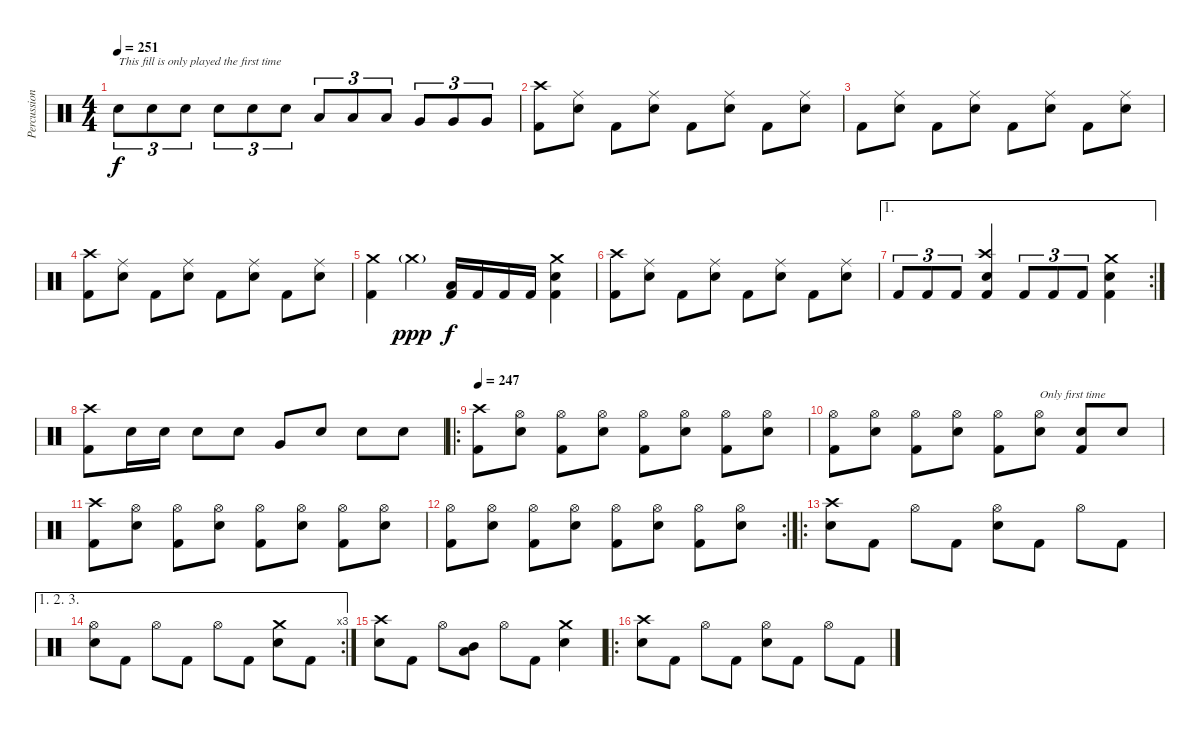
\track ("Percussion" "Percussion") {instrument percussion}
\staff {score}
\articulation defaults
\ts (4 4)
\tempo 251
\clef neutral
\ks c "Snare (hit) 2".8{tu (3 2) txt "This fill is only played the first time" dy f} "Snare (hit) 2".8{tu (3 2)} "Snare (hit) 2".8{tu (3 2)} "Snare (hit) 2".8{tu (3 2)} "Snare (hit) 2".8{tu (3 2)} "Snare (hit) 2".8{tu (3 2)} "Low Tom (hit)".8{tu (3 2)} "Low Tom (hit)".8{tu (3 2)} "Low Tom (hit)".8{tu (3 2)} "Very Low Tom (hit)".8{tu (3 2)} "Very Low Tom (hit)".8{tu (3 2)} "Very Low Tom (hit)".8{tu (3 2)}
|
("Crash high (hit)" "Kick (hit) 2").8 ("Ride (middle)" "Snare (hit) 2").8 "Kick (hit) 2".8 ("Ride (middle)" "Snare (hit) 2").8 "Kick (hit) 2".8 ("Ride (middle)" "Snare (hit) 2").8 "Kick (hit) 2".8 ("Ride (middle)" "Snare (hit) 2").8 |
"Kick (hit) 2".8 ("Ride (middle)" "Snare (hit) 2").8 "Kick (hit) 2".8 ("Ride (middle)" "Snare (hit) 2").8 "Kick (hit) 2".8 ("Ride (middle)" "Snare (hit) 2").8 "Kick (hit) 2".8 ("Ride (middle)" "Snare (hit) 2").8 |
("Crash high (hit)" "Kick (hit) 2").8 ("Ride (middle)" "Snare (hit) 2").8 "Kick (hit) 2".8 ("Ride (middle)" "Snare (hit) 2").8 "Kick (hit) 2".8 ("Ride (middle)" "Snare (hit) 2").8 "Kick (hit) 2".8 ("Ride (middle)" "Snare (hit) 2").8 |
("Crash medium (hit)" "Kick (hit) 2").4 "Crash medium (hit)"{g}.4{dy ppp} ("Low Tom (hit)" "Kick (hit) 2").16{dy f} "Kick (hit) 2".16 "Kick (hit) 2".16 "Kick (hit) 2".16 ("Crash medium (hit)" "Snare (hit) 2" "Kick (hit) 2").4 |
("Crash high (hit)" "Kick (hit) 2").8 ("Ride (middle)" "Snare (hit) 2").8 "Kick (hit) 2".8 ("Ride (middle)" "Snare (hit) 2").8 "Kick (hit) 2".8 ("Ride (middle)" "Snare (hit) 2").8 "Kick (hit) 2".8 ("Ride (middle)" "Snare (hit) 2").8 |
\ae 1
\rc 2 "Kick (hit) 2".8{tu (3 2)} "Kick (hit) 2".8{tu (3 2)} "Kick (hit) 2".8{tu (3 2)}
("Crash high (hit)" "Snare (hit) 2" "Kick (hit) 2").4 "Kick (hit) 2".8{tu (3 2)} "Kick (hit) 2".8{tu (3 2)} "Kick (hit) 2".8{tu (3 2)} ("Crash medium (hit)" "Snare (hit) 2" "Kick (hit) 2").4 |
("Crash high (hit)" "Kick (hit) 2").8 "Snare (hit) 2".16 "Snare (hit) 2".16 "Snare (hit) 2".8 "Snare (hit) 2".8 "Very Low Tom (hit)".8 "Snare (hit) 2".8 "Snare (hit) 2".8 "Snare (hit) 2".8 |
\ro
\tempo 247
("Crash high (hit)" "Kick (hit) 2").8 ("Hi-Hat (open)" "Snare (hit) 2").8 ("Hi-Hat (open)" "Kick (hit) 2").8 ("Hi-Hat (open)" "Snare (hit) 2").8 ("Hi-Hat (open)" "Kick (hit) 2").8 ("Hi-Hat (open)" "Snare (hit) 2").8 ("Hi-Hat (open)" "Kick (hit) 2").8 ("Hi-Hat (open)" "Snare (hit) 2").8 |
("Hi-Hat (open)" "Kick (hit) 2").8 ("Hi-Hat (open)" "Snare (hit) 2").8 ("Hi-Hat (open)" "Kick (hit) 2").8 ("Hi-Hat (open)" "Snare (hit) 2").8 ("Hi-Hat (open)" "Kick (hit) 2").8 ("Hi-Hat (open)" "Snare (hit) 2").8{txt "Only first time"} ("Snare (hit) 2" "Kick (hit) 2").8 "Snare (hit) 2".8 |
("Crash high (hit)" "Kick (hit) 2").8 ("Hi-Hat (open)" "Snare (hit) 2").8 ("Hi-Hat (open)" "Kick (hit) 2").8 ("Hi-Hat (open)" "Snare (hit) 2").8 ("Hi-Hat (open)" "Kick (hit) 2").8 ("Hi-Hat (open)" "Snare (hit) 2").8 ("Hi-Hat (open)" "Kick (hit) 2").8 ("Hi-Hat (open)" "Snare (hit) 2").8 |
\rc 2
("Hi-Hat (open)" "Kick (hit) 2").8 ("Hi-Hat (open)" "Snare (hit) 2").8 ("Hi-Hat (open)" "Kick (hit) 2").8 ("Hi-Hat (open)" "Snare (hit) 2").8 ("Hi-Hat (open)" "Kick (hit) 2").8 ("Hi-Hat (open)" "Snare (hit) 2").8 ("Hi-Hat (open)" "Kick (hit) 2").8 ("Hi-Hat (open)" "Snare (hit) 2").8 |
\ro
("Crash high (hit)" "Snare (hit) 2").8 "Kick (hit) 2".8 "Hi-Hat (open)".8 "Kick (hit) 2".8 ("Hi-Hat (open)" "Snare (hit) 2").8 "Kick (hit) 2".8 "Hi-Hat (open)".8 "Kick (hit) 2".8 |
\ae (1 2 3)
\rc 3
("Hi-Hat (open)" "Snare (hit) 2").8 "Kick (hit) 2".8 "Hi-Hat (open)".8 "Kick (hit) 2".8 "Hi-Hat (open)".8 "Kick (hit) 2".8 ("Crash medium (hit)" "Snare (hit) 2").8 "Kick (hit) 2".8 |
("Crash high (hit)" "Snare (hit) 2").8 "Kick (hit) 2".8 "Hi-Hat (open)".8 ("Mid Tom (hit)" "Low Tom (hit)").8 "Hi-Hat (open)".8 "Kick (hit) 2".8 ("Crash medium (hit)" "Snare (hit) 2").4 |
\ro
("Crash high (hit)" "Snare (hit) 2").8 "Kick (hit) 2".8 "Hi-Hat (open)".8 "Kick (hit) 2".8 ("Hi-Hat (open)" "Snare (hit) 2").8 "Kick (hit) 2".8 "Hi-Hat (open)".8 "Kick (hit) 2".8
